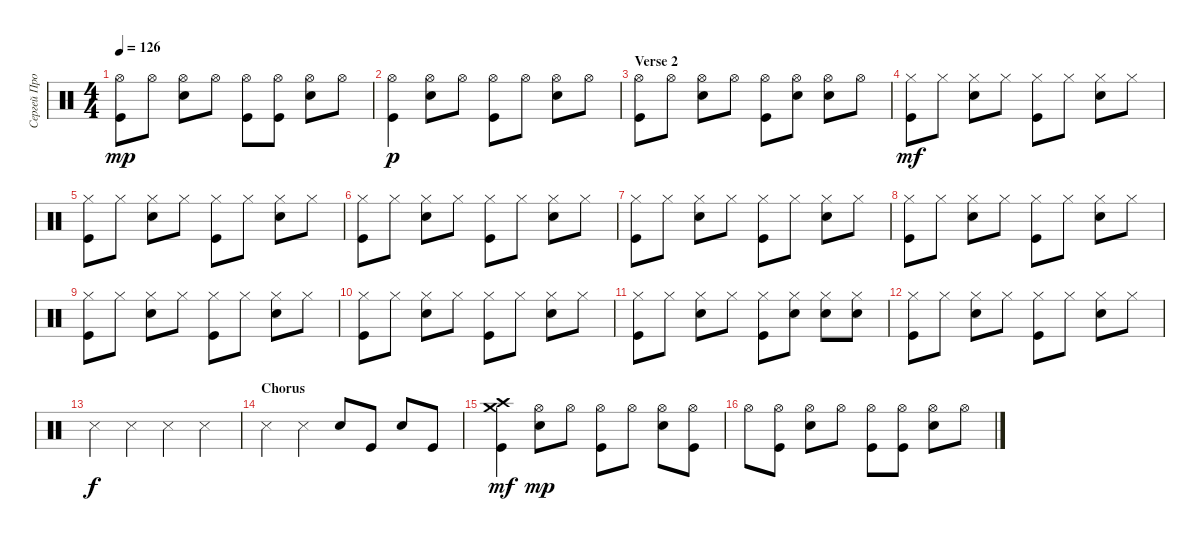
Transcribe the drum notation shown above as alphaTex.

\track ("Сергей Прокофьев (Барабаны)" "Сергей Про") {instrument percussion}
\staff {score}
\articulation defaults
\ts (4 4)
\tempo 126
\clef neutral
\ks c
("Hi-Hat (open)" "Kick (hit)").8{dy mp} "Hi-Hat (open)".8 ("Hi-Hat (open)" "Electric Snare (hit)").8 "Hi-Hat (open)".8 ("Hi-Hat (open)" "Kick (hit)").8 ("Hi-Hat (open)" "Kick (hit)").8 ("Hi-Hat (open)" "Electric Snare (hit)").8 "Hi-Hat (open)".8 |
("Hi-Hat (open)" "Kick (hit)").4{dy p} ("Hi-Hat (open)" "Electric Snare (hit)").8 "Hi-Hat (open)".8 ("Hi-Hat (open)" "Kick (hit)").8 "Hi-Hat (open)".8 ("Hi-Hat (open)" "Electric Snare (hit)").8 "Hi-Hat (open)".8 |
\section ("" "Verse 2")
("Hi-Hat (open)" "Kick (hit)").8 "Hi-Hat (open)".8 ("Hi-Hat (open)" "Electric Snare (hit)").8 "Hi-Hat (open)".8 ("Hi-Hat (open)" "Kick (hit)").8 ("Hi-Hat (open)" "Electric Snare (hit)").8 ("Hi-Hat (open)" "Electric Snare (hit)").8 "Hi-Hat (open)".8 |
("Hi-Hat (closed)" "Kick (hit)").8{dy mf} "Hi-Hat (closed)".8 ("Hi-Hat (closed)" "Electric Snare (hit)").8 "Hi-Hat (closed)".8 ("Hi-Hat (closed)" "Kick (hit)").8 "Hi-Hat (closed)".8 ("Hi-Hat (closed)" "Electric Snare (hit)").8 "Hi-Hat (closed)".8 |
("Hi-Hat (closed)" "Kick (hit)").8 "Hi-Hat (closed)".8 ("Hi-Hat (closed)" "Electric Snare (hit)").8 "Hi-Hat (closed)".8 ("Hi-Hat (closed)" "Kick (hit)").8 "Hi-Hat (closed)".8 ("Hi-Hat (closed)" "Electric Snare (hit)").8 "Hi-Hat (closed)".8 |
("Hi-Hat (closed)" "Kick (hit)").8 "Hi-Hat (closed)".8 ("Hi-Hat (closed)" "Electric Snare (hit)").8 "Hi-Hat (closed)".8 ("Hi-Hat (closed)" "Kick (hit)").8 "Hi-Hat (closed)".8 ("Hi-Hat (closed)" "Electric Snare (hit)").8 "Hi-Hat (closed)".8 |
("Hi-Hat (closed)" "Kick (hit)").8 "Hi-Hat (closed)".8 ("Hi-Hat (closed)" "Electric Snare (hit)").8 "Hi-Hat (closed)".8 ("Hi-Hat (closed)" "Kick (hit)").8 "Hi-Hat (closed)".8 ("Hi-Hat (closed)" "Electric Snare (hit)").8 "Hi-Hat (closed)".8 |
("Hi-Hat (closed)" "Kick (hit)").8 "Hi-Hat (closed)".8 ("Hi-Hat (closed)" "Electric Snare (hit)").8 "Hi-Hat (closed)".8 ("Hi-Hat (closed)" "Kick (hit)").8 "Hi-Hat (closed)".8 ("Hi-Hat (closed)" "Electric Snare (hit)").8 "Hi-Hat (closed)".8 |
("Hi-Hat (closed)" "Kick (hit)").8 "Hi-Hat (closed)".8 ("Hi-Hat (closed)" "Electric Snare (hit)").8 "Hi-Hat (closed)".8 ("Hi-Hat (closed)" "Kick (hit)").8 "Hi-Hat (closed)".8 ("Hi-Hat (closed)" "Electric Snare (hit)").8 "Hi-Hat (closed)".8 |
("Hi-Hat (closed)" "Kick (hit)").8 "Hi-Hat (closed)".8 ("Hi-Hat (closed)" "Electric Snare (hit)").8 "Hi-Hat (closed)".8 ("Hi-Hat (closed)" "Kick (hit)").8 "Hi-Hat (closed)".8 ("Hi-Hat (closed)" "Electric Snare (hit)").8 "Hi-Hat (closed)".8 |
("Hi-Hat (closed)" "Kick (hit)").8 "Hi-Hat (closed)".8 ("Hi-Hat (closed)" "Electric Snare (hit)").8 "Hi-Hat (closed)".8 ("Hi-Hat (closed)" "Kick (hit)").8 ("Hi-Hat (closed)" "Electric Snare (hit)").8 ("Hi-Hat (closed)" "Electric Snare (hit)").8 ("Hi-Hat (closed)" "Electric Snare (hit)").8 |
("Hi-Hat (closed)" "Kick (hit)").8 "Hi-Hat (closed)".8 ("Hi-Hat (closed)" "Electric Snare (hit)").8 "Hi-Hat (closed)".8 ("Hi-Hat (closed)" "Kick (hit)").8 "Hi-Hat (closed)".8 ("Hi-Hat (closed)" "Electric Snare (hit)").8 "Hi-Hat (closed)".8 |
"Snare (side stick) 3".4{dy f} "Snare (side stick) 3".4 "Snare (side stick) 3".4 "Snare (side stick) 3".4 |
\section ("" "Chorus")
"Snare (side stick) 3".4 "Snare (side stick) 3".4 "Electric Snare (hit)".8 "Kick (hit)".8 "Electric Snare (hit)".8 "Kick (hit)".8 |
("Crash high (hit)" "Crash medium (hit)" "Kick (hit)").4{dy mf} ("Hi-Hat (open)" "Electric Snare (hit)").8{dy mp} "Hi-Hat (open)".8 ("Hi-Hat (open)" "Kick (hit)").8 "Hi-Hat (open)".8 ("Hi-Hat (open)" "Electric Snare (hit)").8 ("Hi-Hat (open)" "Kick (hit)").8 |
"Hi-Hat (open)".8 ("Hi-Hat (open)" "Kick (hit)").8 ("Hi-Hat (open)" "Electric Snare (hit)").8 "Hi-Hat (open)".8 ("Hi-Hat (open)" "Kick (hit)").8 ("Hi-Hat (open)" "Kick (hit)").8 ("Hi-Hat (open)" "Electric Snare (hit)").8 "Hi-Hat (open)".8
